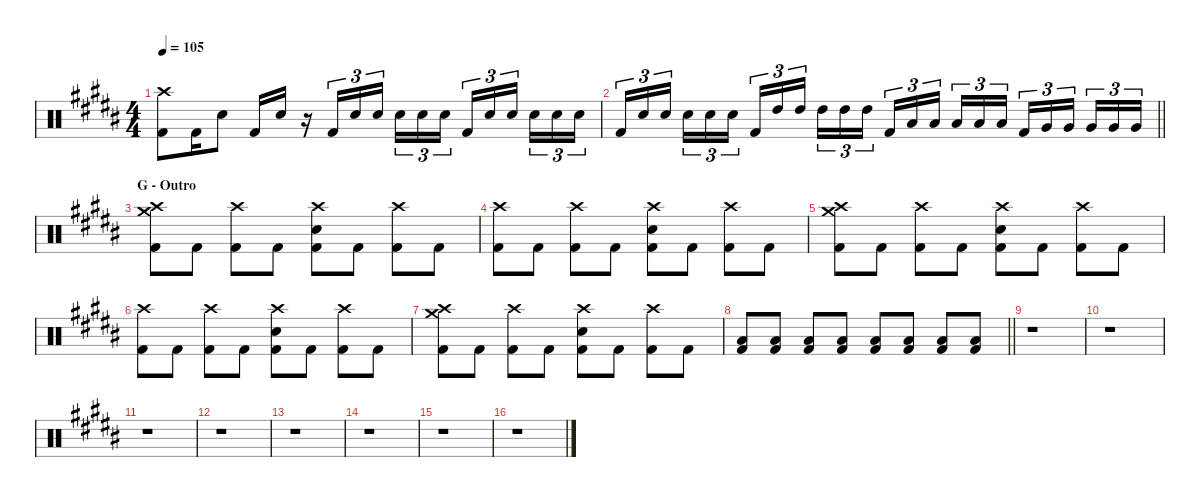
\defaultSystemsLayout 4
\hideDynamics
\bracketExtendMode nobrackets
\singleTrackTrackNamePolicy hidden
\multiTrackTrackNamePolicy hidden
\firstSystemTrackNameMode fullname
\firstSystemTrackNameOrientation horizontal
\otherSystemsTrackNameOrientation horizontal
\track ("Percussions" "drm.") {instrument percussion}
\staff {score}
\articulation defaults
\ts (4 4)
\tempo 105
\clef neutral
\ks b
("Crash high (hit)"{acc bb} "Kick (hit) 2"{acc bb}).8{dy f beam Down} "Kick (hit) 2"{acc bb}.16{beam Down} "Snare (hit) 2"{acc bb}.8{beam Down} "Kick (hit) 2"{acc bb}.16{beam Up} "Snare (hit) 2"{acc bb}.16{beam Up} r.16{beam Up} "Kick (hit) 2"{acc bb}.16{tu (3 2) beam Up} "Snare (hit) 2"{acc bb}.16{tu (3 2) beam Up} "Snare (hit) 2"{acc bb}.16{tu (3 2) beam Up} "Snare (hit) 2"{acc bb}.16{tu (3 2) beam Down} "Snare (hit) 2"{acc bb}.16{tu (3 2) beam Down} "Snare (hit) 2"{acc bb}.16{tu (3 2) beam Down} "Kick (hit) 2"{acc bb}.16{tu (3 2) beam Up} "Snare (hit) 2"{acc bb}.16{tu (3 2) beam Up} "Snare (hit) 2"{acc bb}.16{tu (3 2) beam Up} "Snare (hit) 2"{acc bb}.16{tu (3 2) beam Down} "Snare (hit) 2"{acc bb}.16{tu (3 2) beam Down} "Snare (hit) 2"{acc bb}.16{tu (3 2) beam Down} |
\barLineRight lightlight "Kick (hit) 2"{acc bb}.16{tu (3 2) beam Up} "Snare (hit) 2"{acc bb}.16{tu (3 2) beam Up} "Snare (hit) 2"{acc bb}.16{tu (3 2) beam Up} "Snare (hit) 2"{acc bb}.16{tu (3 2) beam Down} "Snare (hit) 2"{acc bb}.16{tu (3 2) beam Down} "Snare (hit) 2"{acc bb}.16{tu (3 2) beam Down} "Kick (hit) 2"{acc bb}.16{tu (3 2) beam Up} "High Tom (hit)"{acc bb}.16{tu (3 2) beam Up} "High Tom (hit)"{acc bb}.16{tu (3 2) beam Up} "High Tom (hit)"{acc bb}.16{tu (3 2) beam Down} "High Tom (hit)"{acc bb}.16{tu (3 2) beam Down} "High Tom (hit)"{acc bb}.16{tu (3 2) beam Down} "Kick (hit) 2"{acc bb}.16{tu (3 2) beam Up} "Low Tom (hit)"{acc bb}.16{tu (3 2) beam Up} "Low Tom (hit)"{acc bb}.16{tu (3 2) beam Up} "Low Tom (hit)"{acc bb}.16{tu (3 2) beam Up} "Low Tom (hit)"{acc bb}.16{tu (3 2) beam Up} "Low Tom (hit)"{acc bb}.16{tu (3 2) beam Up} "Kick (hit) 2"{acc bb}.16{tu (3 2) beam Up} "Very Low Tom (hit)"{acc bb}.16{tu (3 2) beam Up} "Very Low Tom (hit)"{acc bb}.16{tu (3 2) beam Up} "Very Low Tom (hit)"{acc bb}.16{tu (3 2) beam Up} "Very Low Tom (hit)"{acc bb}.16{tu (3 2) beam Up} "Very Low Tom (hit)"{acc bb}.16{tu (3 2) beam Up}
|
\section ("" "G - Outro")
("Crash medium (hit)"{acc bb} "Crash high (hit)"{acc bb} "Kick (hit) 2"{acc bb}).8{beam Down} "Kick (hit) 2"{acc bb}.8{beam Down} ("Crash high (hit)"{acc bb} "Kick (hit) 2"{acc bb}).8{beam Down} "Kick (hit) 2"{acc bb}.8{beam Down} ("Crash high (hit)"{acc bb} "Snare (hit) 2"{acc bb} "Kick (hit) 2"{acc bb}).8{beam Down} "Kick (hit) 2"{acc bb}.8{beam Down} ("Crash high (hit)"{acc bb} "Kick (hit) 2"{acc bb}).8{beam Down} "Kick (hit) 2"{acc bb}.8{beam Down} |
("Crash high (hit)"{acc bb} "Kick (hit) 2"{acc bb}).8{beam Down} "Kick (hit) 2"{acc bb}.8{beam Down} ("Crash high (hit)"{acc bb} "Kick (hit) 2"{acc bb}).8{beam Down} "Kick (hit) 2"{acc bb}.8{beam Down} ("Crash high (hit)"{acc bb} "Snare (hit) 2"{acc bb} "Kick (hit) 2"{acc bb}).8{beam Down} "Kick (hit) 2"{acc bb}.8{beam Down} ("Crash high (hit)"{acc bb} "Kick (hit) 2"{acc bb}).8{beam Down} "Kick (hit) 2"{acc bb}.8{beam Down} |
("Crash medium (hit)"{acc bb} "Crash high (hit)"{acc bb} "Kick (hit) 2"{acc bb}).8{beam Down} "Kick (hit) 2"{acc bb}.8{beam Down} ("Crash high (hit)"{acc bb} "Kick (hit) 2"{acc bb}).8{beam Down} "Kick (hit) 2"{acc bb}.8{beam Down} ("Crash high (hit)"{acc bb} "Snare (hit) 2"{acc bb} "Kick (hit) 2"{acc bb}).8{beam Down} "Kick (hit) 2"{acc bb}.8{beam Down} ("Crash high (hit)"{acc bb} "Kick (hit) 2"{acc bb}).8{beam Down} "Kick (hit) 2"{acc bb}.8{beam Down} |
("Crash high (hit)"{acc bb} "Kick (hit) 2"{acc bb}).8{beam Down} "Kick (hit) 2"{acc bb}.8{beam Down} ("Crash high (hit)"{acc bb} "Kick (hit) 2"{acc bb}).8{beam Down} "Kick (hit) 2"{acc bb}.8{beam Down} ("Crash high (hit)"{acc bb} "Snare (hit) 2"{acc bb} "Kick (hit) 2"{acc bb}).8{beam Down} "Kick (hit) 2"{acc bb}.8{beam Down} ("Crash high (hit)"{acc bb} "Kick (hit) 2"{acc bb}).8{beam Down} "Kick (hit) 2"{acc bb}.8{beam Down} |
("Crash medium (hit)"{acc bb} "Crash high (hit)"{acc bb} "Kick (hit) 2"{acc bb}).8{beam Down} "Kick (hit) 2"{acc bb}.8{beam Down} ("Crash high (hit)"{acc bb} "Kick (hit) 2"{acc bb}).8{beam Down} "Kick (hit) 2"{acc bb}.8{beam Down} ("Crash high (hit)"{acc bb} "Snare (hit) 2"{acc bb} "Kick (hit) 2"{acc bb}).8{beam Down} "Kick (hit) 2"{acc bb}.8{beam Down} ("Crash high (hit)"{acc bb} "Kick (hit) 2"{acc bb}).8{beam Down} "Kick (hit) 2"{acc bb}.8{beam Down} |
\barLineRight lightlight
("Low Tom (hit)"{acc bb} "Kick (hit) 2"{acc bb}).8{dy mf beam Up} ("Low Tom (hit)"{acc bb} "Kick (hit) 2"{acc bb}).8{beam Up} ("Low Tom (hit)"{acc bb} "Kick (hit) 2"{acc bb}).8{dy f beam Up} ("Low Tom (hit)"{acc bb} "Kick (hit) 2"{acc bb}).8{beam Up} ("Low Tom (hit)"{acc bb} "Kick (hit) 2"{acc bb}).8{dy ff beam Up} ("Low Tom (hit)"{acc bb} "Kick (hit) 2"{acc bb}).8{beam Up} ("Low Tom (hit)"{acc bb} "Kick (hit) 2"{acc bb}).8{dy fff beam Up} ("Low Tom (hit)"{acc bb} "Kick (hit) 2"{acc bb}).8{beam Up} |
r.1{beam Down} |
r.1{beam Down} |
r.1{beam Down} |
r.1{beam Down} |
r.1{beam Down} |
r.1{beam Down} |
r.1{beam Down} |
r.1{beam Down}
